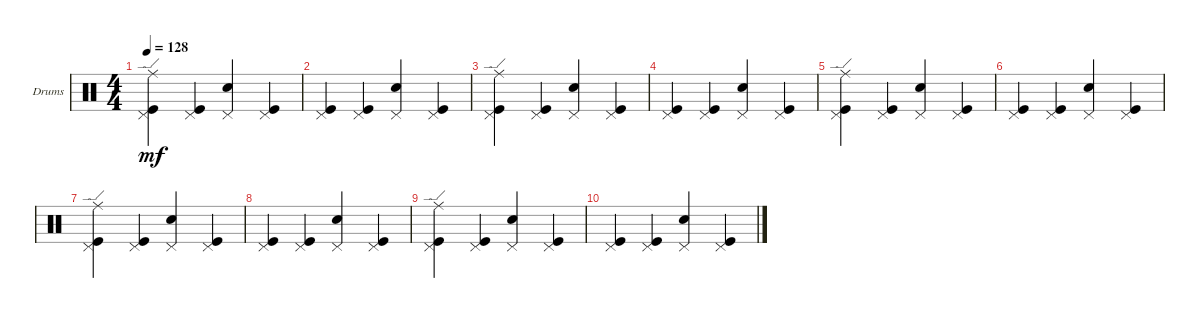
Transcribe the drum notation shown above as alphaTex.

\defaultSystemsLayout 4
\bracketExtendMode groupsimilarinstruments
\firstSystemTrackNameOrientation horizontal
\otherSystemsTrackNameOrientation horizontal
\track ("Drumkit" "Drums") {instrument percussion}
\staff {score}
\articulation defaults
\ts (4 4)
\tempo 128
\clef neutral
\ks c
("Kick (hit)" "Pedal Hi-Hat (hit)" "Ride (edge)").4{dy mf} ("Kick (hit)" "Pedal Hi-Hat (hit)").4 ("Snare (hit) 2" "Pedal Hi-Hat (hit)").4 ("Kick (hit)" "Pedal Hi-Hat (hit)").4 |
("Kick (hit)" "Pedal Hi-Hat (hit)").4 ("Kick (hit)" "Pedal Hi-Hat (hit)").4 ("Snare (hit) 2" "Pedal Hi-Hat (hit)").4 ("Kick (hit)" "Pedal Hi-Hat (hit)").4 |
("Kick (hit)" "Pedal Hi-Hat (hit)" "Ride (edge)").4 ("Kick (hit)" "Pedal Hi-Hat (hit)").4 ("Snare (hit) 2" "Pedal Hi-Hat (hit)").4 ("Kick (hit)" "Pedal Hi-Hat (hit)").4 |
("Kick (hit)" "Pedal Hi-Hat (hit)").4 ("Kick (hit)" "Pedal Hi-Hat (hit)").4 ("Snare (hit) 2" "Pedal Hi-Hat (hit)").4 ("Kick (hit)" "Pedal Hi-Hat (hit)").4 |
("Kick (hit)" "Pedal Hi-Hat (hit)" "Ride (edge)").4 ("Kick (hit)" "Pedal Hi-Hat (hit)").4 ("Snare (hit) 2" "Pedal Hi-Hat (hit)").4 ("Kick (hit)" "Pedal Hi-Hat (hit)").4 |
("Kick (hit)" "Pedal Hi-Hat (hit)").4 ("Kick (hit)" "Pedal Hi-Hat (hit)").4 ("Snare (hit) 2" "Pedal Hi-Hat (hit)").4 ("Kick (hit)" "Pedal Hi-Hat (hit)").4 |
("Kick (hit)" "Pedal Hi-Hat (hit)" "Ride (edge)").4 ("Kick (hit)" "Pedal Hi-Hat (hit)").4 ("Snare (hit) 2" "Pedal Hi-Hat (hit)").4 ("Kick (hit)" "Pedal Hi-Hat (hit)").4 |
("Kick (hit)" "Pedal Hi-Hat (hit)").4 ("Kick (hit)" "Pedal Hi-Hat (hit)").4 ("Snare (hit) 2" "Pedal Hi-Hat (hit)").4 ("Kick (hit)" "Pedal Hi-Hat (hit)").4 |
("Kick (hit)" "Pedal Hi-Hat (hit)" "Ride (edge)").4 ("Kick (hit)" "Pedal Hi-Hat (hit)").4 ("Snare (hit) 2" "Pedal Hi-Hat (hit)").4 ("Kick (hit)" "Pedal Hi-Hat (hit)").4 |
("Kick (hit)" "Pedal Hi-Hat (hit)").4 ("Kick (hit)" "Pedal Hi-Hat (hit)").4 ("Snare (hit) 2" "Pedal Hi-Hat (hit)").4 ("Kick (hit)" "Pedal Hi-Hat (hit)").4
